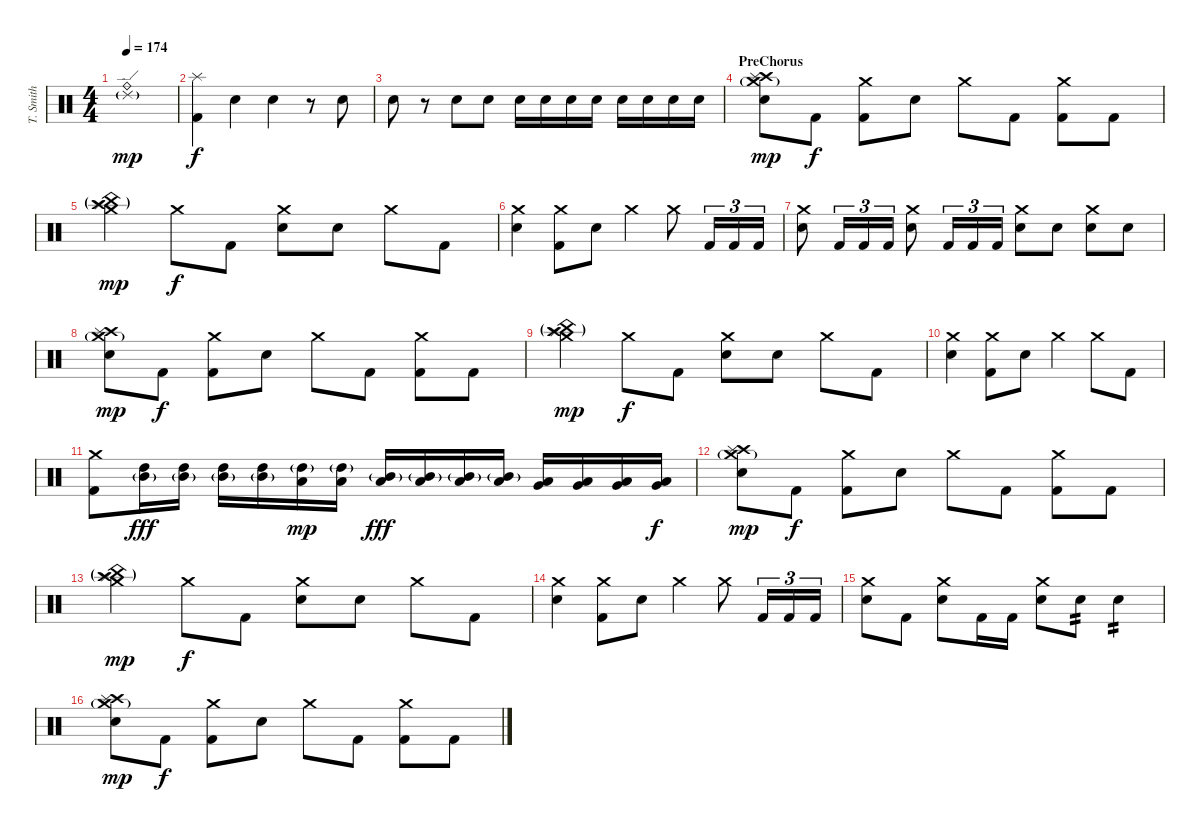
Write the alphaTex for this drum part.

\track ("T. Smith" "T. Smith") {instrument percussion}
\staff {score}
\articulation defaults
\ts (4 4)
\tempo 174
\clef neutral
\ks c
("Ride (bell)" "Ride (edge) 2"{g}).1{dy mp} |
("Splash (hit)" "Kick (hit) 2").4{dy f} "Electric Snare (hit)".4 "Electric Snare (hit)".4 r.8 "Electric Snare (hit)".8 |
"Electric Snare (hit)".8 r.8 "Electric Snare (hit)".8 "Electric Snare (hit)".8 "Electric Snare (hit)".16 "Electric Snare (hit)".16 "Electric Snare (hit)".16 "Electric Snare (hit)".16 "Electric Snare (hit)".16 "Electric Snare (hit)".16 "Electric Snare (hit)".16 "Electric Snare (hit)".16 |
\section ("" "PreChorus")
("Crash medium (hit)"{g} "Crash high (hit)" "Splash (hit)" "Electric Snare (hit)").8{dy mp} "Kick (hit) 2".8{dy f} ("Crash medium (hit)" "Kick (hit) 2").8 "Electric Snare (hit)".8 "Crash medium (hit)".8 "Kick (hit) 2".8 ("Crash medium (hit)" "Kick (hit) 2").8 "Kick (hit) 2".8 |
("Crash medium (hit)" "Crash high (hit)"{g} "Splash (hit)" "China (hit)"{g}).4{dy mp} "Crash medium (hit)".8{dy f} "Kick (hit) 2".8 ("Crash medium (hit)" "Electric Snare (hit)").8 "Electric Snare (hit)".8 "Crash medium (hit)".8 "Kick (hit) 2".8 |
("Crash medium (hit)" "Electric Snare (hit)").4 ("Crash medium (hit)" "Kick (hit) 2").8 "Electric Snare (hit)".8 "Crash medium (hit)".4 "Crash medium (hit)".8 "Kick (hit) 2".16{tu (3 2)} "Kick (hit) 2".16{tu (3 2)} "Kick (hit) 2".16{tu (3 2)} |
("Crash medium (hit)" "Electric Snare (hit)").8 "Kick (hit) 2".16{tu (3 2)} "Kick (hit) 2".16{tu (3 2)} "Kick (hit) 2".16{tu (3 2)} ("Crash medium (hit)" "Electric Snare (hit)").8 "Kick (hit) 2".16{tu (3 2)} "Kick (hit) 2".16{tu (3 2)} "Kick (hit) 2".16{tu (3 2)} ("Crash medium (hit)" "Electric Snare (hit)").8 "Electric Snare (hit)".8 ("Crash medium (hit)" "Electric Snare (hit)").8 "Electric Snare (hit)".8 |
("Crash medium (hit)"{g} "Crash high (hit)" "Splash (hit)" "Electric Snare (hit)").8{dy mp} "Kick (hit) 2".8{dy f} ("Crash medium (hit)" "Kick (hit) 2").8 "Electric Snare (hit)".8 "Crash medium (hit)".8 "Kick (hit) 2".8 ("Crash medium (hit)" "Kick (hit) 2").8 "Kick (hit) 2".8 |
("Crash medium (hit)" "Crash high (hit)"{g} "Splash (hit)" "China (hit)"{g}).4{dy mp} "Crash medium (hit)".8{dy f} "Kick (hit) 2".8 ("Crash medium (hit)" "Electric Snare (hit)").8 "Electric Snare (hit)".8 "Crash medium (hit)".8 "Kick (hit) 2".8 |
("Crash medium (hit)" "Electric Snare (hit)").4 ("Crash medium (hit)" "Kick (hit) 2").8 "Electric Snare (hit)".8 "Crash medium (hit)".4 "Crash medium (hit)".8 "Kick (hit) 2".8 |
("Crash medium (hit)" "Kick (hit) 2").8 ("Mid Tom (hit)"{g} "High Tom (hit)").16{dy fff} ("Mid Tom (hit)"{g} "High Tom (hit)").16 ("Mid Tom (hit)"{g} "High Tom (hit)").16 ("Mid Tom (hit)"{g} "High Tom (hit)").16 ("Low Tom (hit)" "High Tom (hit)"{g}).16{dy mp} ("Low Tom (hit)" "High Tom (hit)"{g}).16 ("Mid Tom (hit)"{g} "Low Tom (hit)").16{dy fff} ("Mid Tom (hit)"{g} "Low Tom (hit)").16 ("Mid Tom (hit)"{g} "Low Tom (hit)").16 ("Mid Tom (hit)"{g} "Low Tom (hit)").16 ("Very Low Tom (hit)" "Low Tom (hit)").16 ("Very Low Tom (hit)" "Low Tom (hit)").16 ("Very Low Tom (hit)" "Low Tom (hit)").16 ("Very Low Tom (hit)" "Low Tom (hit)").16{dy f} |
("Crash medium (hit)"{g} "Crash high (hit)" "Splash (hit)" "Electric Snare (hit)").8{dy mp} "Kick (hit) 2".8{dy f} ("Crash medium (hit)" "Kick (hit) 2").8 "Electric Snare (hit)".8 "Crash medium (hit)".8 "Kick (hit) 2".8 ("Crash medium (hit)" "Kick (hit) 2").8 "Kick (hit) 2".8 |
("Crash medium (hit)" "Crash high (hit)"{g} "Splash (hit)" "China (hit)"{g}).4{dy mp} "Crash medium (hit)".8{dy f} "Kick (hit) 2".8 ("Crash medium (hit)" "Electric Snare (hit)").8 "Electric Snare (hit)".8 "Crash medium (hit)".8 "Kick (hit) 2".8 |
("Crash medium (hit)" "Electric Snare (hit)").4 ("Crash medium (hit)" "Kick (hit) 2").8 "Electric Snare (hit)".8 "Crash medium (hit)".4 "Crash medium (hit)".8 "Kick (hit) 2".16{tu (3 2)} "Kick (hit) 2".16{tu (3 2)} "Kick (hit) 2".16{tu (3 2)} |
("Crash medium (hit)" "Electric Snare (hit)").8 "Kick (hit) 2".8 ("Crash medium (hit)" "Electric Snare (hit)").8 "Kick (hit) 2".16 "Kick (hit) 2".16 ("Crash medium (hit)" "Electric Snare (hit)").8 "Electric Snare (hit)".8{tp 2} "Electric Snare (hit)".4{tp 2} |
("Crash medium (hit)"{g} "Crash high (hit)" "Splash (hit)" "Electric Snare (hit)").8{dy mp} "Kick (hit) 2".8{dy f} ("Crash medium (hit)" "Kick (hit) 2").8 "Electric Snare (hit)".8 "Crash medium (hit)".8 "Kick (hit) 2".8 ("Crash medium (hit)" "Kick (hit) 2").8 "Kick (hit) 2".8
